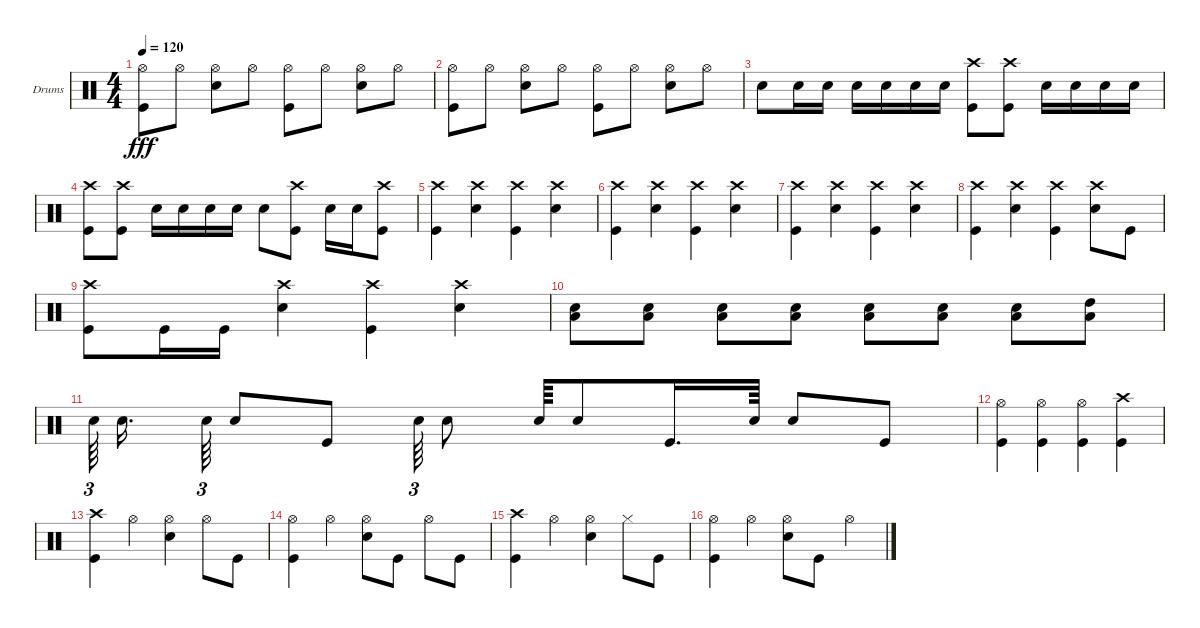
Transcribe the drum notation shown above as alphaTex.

\bracketExtendMode groupsimilarinstruments
\firstSystemTrackNameOrientation horizontal
\otherSystemsTrackNameOrientation horizontal
\track ("Drumkit" "Drums") {instrument percussion}
\staff {score}
\articulation defaults
\ts (4 4)
\tempo 120
\clef neutral
\ks c
("Kick (hit)" "Hi-Hat (open)").8{dy fff} "Hi-Hat (open)".8 ("Snare (hit) 2" "Hi-Hat (open)").8 "Hi-Hat (open)".8 ("Kick (hit)" "Hi-Hat (open)").8 "Hi-Hat (open)".8 ("Snare (hit) 2" "Hi-Hat (open)").8 "Hi-Hat (open)".8 |
("Kick (hit)" "Hi-Hat (open)").8 "Hi-Hat (open)".8 ("Snare (hit) 2" "Hi-Hat (open)").8 "Hi-Hat (open)".8 ("Kick (hit)" "Hi-Hat (open)").8 "Hi-Hat (open)".8 ("Snare (hit) 2" "Hi-Hat (open)").8 "Hi-Hat (open)".8 |
"Snare (hit) 2".8 "Snare (hit) 2".16 "Snare (hit) 2".16 "Snare (hit) 2".16 "Snare (hit) 2".16 "Snare (hit) 2".16 "Snare (hit) 2".16 ("Kick (hit)" "Crash high (hit)").8 ("Kick (hit)" "Crash high (hit)").8 "Snare (hit) 2".16 "Snare (hit) 2".16 "Snare (hit) 2".16 "Snare (hit) 2".16 |
("Kick (hit)" "Crash high (hit)").8 ("Kick (hit)" "Crash high (hit)").8 "Snare (hit) 2".16 "Snare (hit) 2".16 "Snare (hit) 2".16 "Snare (hit) 2".16 "Snare (hit) 2".8 ("Kick (hit)" "Crash high (hit)").8 "Snare (hit) 2".16 "Snare (hit) 2".16 ("Crash high (hit)" "Kick (hit)").8 |
("Kick (hit)" "Crash high (hit)").4 ("Snare (hit) 2" "Crash high (hit)").4 ("Kick (hit)" "Crash high (hit)").4 ("Snare (hit) 2" "Crash high (hit)").4 |
("Kick (hit)" "Crash high (hit)").4 ("Snare (hit) 2" "Crash high (hit)").4 ("Kick (hit)" "Crash high (hit)").4 ("Snare (hit) 2" "Crash high (hit)").4 |
("Kick (hit)" "Crash high (hit)").4 ("Snare (hit) 2" "Crash high (hit)").4 ("Kick (hit)" "Crash high (hit)").4 ("Snare (hit) 2" "Crash high (hit)").4 |
("Kick (hit)" "Crash high (hit)").4 ("Snare (hit) 2" "Crash high (hit)").4 ("Kick (hit)" "Crash high (hit)").4 ("Snare (hit) 2" "Crash high (hit)").8 "Kick (hit)".8 |
("Kick (hit)" "Crash high (hit)").8 "Kick (hit)".16 "Kick (hit)".16 ("Snare (hit) 2" "Crash high (hit)").4 ("Kick (hit)" "Crash high (hit)").4 ("Snare (hit) 2" "Crash high (hit)").4 |
("Low Tom (hit)" "Snare (hit) 2").8 ("Low Tom (hit)" "Snare (hit) 2").8 ("Low Tom (hit)" "Snare (hit) 2").8 ("Low Tom (hit)" "Snare (hit) 2").8 ("Low Tom (hit)" "Snare (hit) 2").8 ("Low Tom (hit)" "Snare (hit) 2").8 ("Low Tom (hit)" "Snare (hit) 2").8 ("Low Tom (hit)" "High Tom (hit)").8 |
"Snare (hit) 2".64{tu (3 2)} "Snare (hit) 2".16{d} "Snare (hit) 2".64{tu (3 2)} "Snare (hit) 2".8 "Kick (hit)".8 "Snare (hit) 2".64{tu (3 2)} "Snare (hit) 2".8 "Snare (hit) 2".64 "Snare (hit) 2".8 "Kick (hit)".16{d} "Snare (hit) 2".64 "Snare (hit) 2".8 "Kick (hit)".8 |
("Kick (hit)" "Hi-Hat (open)").4 ("Kick (hit)" "Hi-Hat (open)").4 ("Kick (hit)" "Hi-Hat (open)").4 ("Kick (hit)" "Crash high (hit)").4 |
("Crash high (hit)" "Kick (hit)").4 "Hi-Hat (open)".4 ("Snare (hit) 2" "Hi-Hat (open)").4 "Hi-Hat (open)".8 "Kick (hit)".8 |
("Kick (hit)" "Hi-Hat (open)").4 "Hi-Hat (open)".4 ("Snare (hit) 2" "Hi-Hat (open)").8 "Kick (hit)".8 "Hi-Hat (open)".8 "Kick (hit)".8 |
("Crash high (hit)" "Kick (hit)").4 "Hi-Hat (open)".4 ("Snare (hit) 2" "Hi-Hat (open)").4 "Hi-Hat (closed)".8 "Kick (hit)".8 |
("Kick (hit)" "Hi-Hat (open)").4 "Hi-Hat (open)".4 ("Snare (hit) 2" "Hi-Hat (open)").8 "Kick (hit)".8 "Hi-Hat (open)".4
